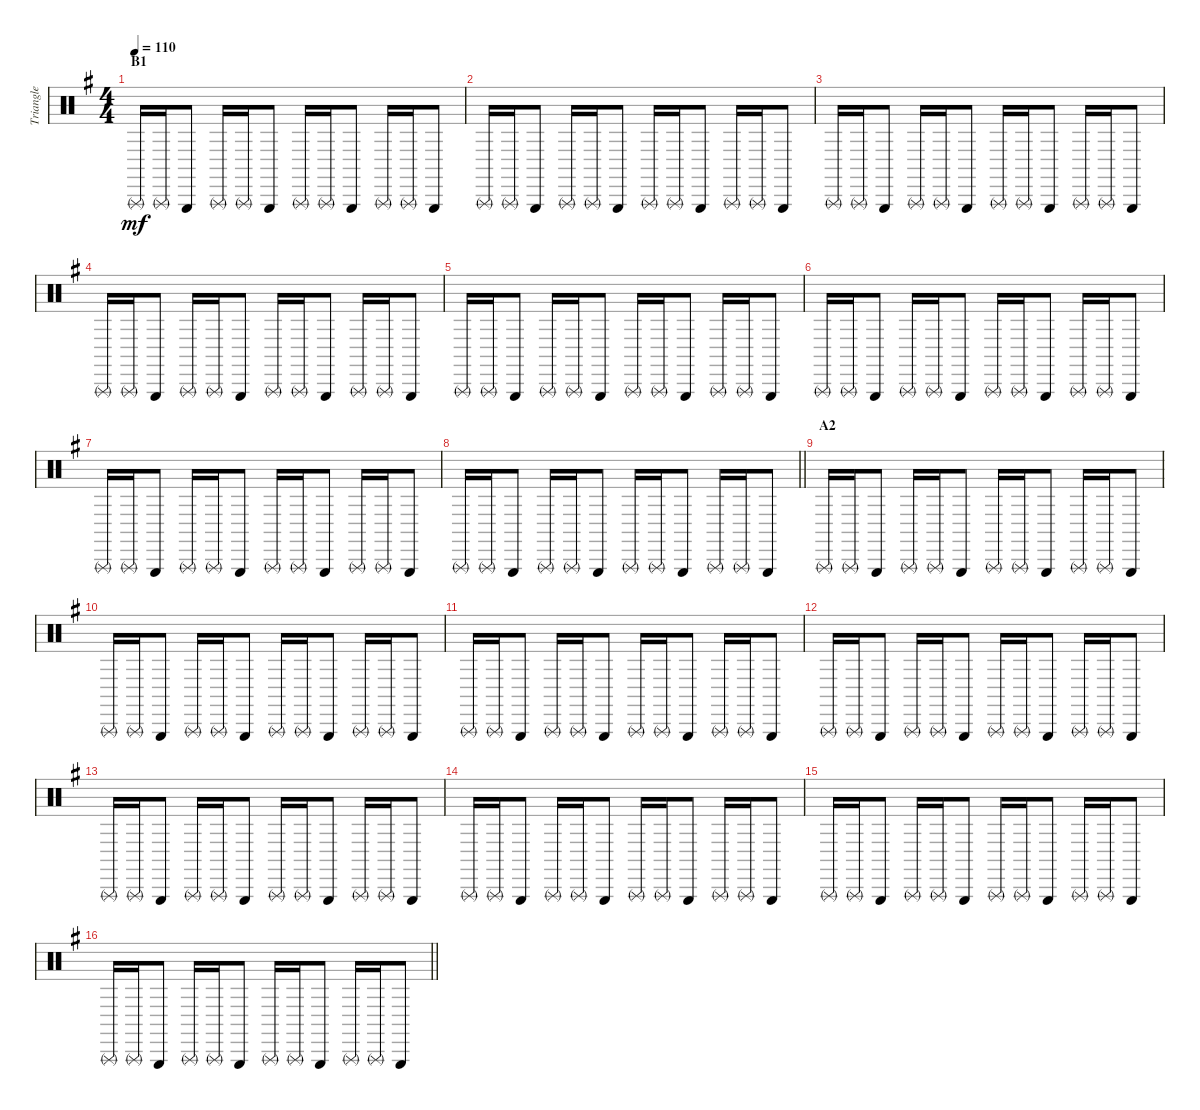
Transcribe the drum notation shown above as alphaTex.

\track ("Triangle" "Triangle") {instrument percussion}
\staff {score}
\articulation defaults
\ts (4 4)
\section ("" "B1")
\tempo 110
\clef neutral
\ks g "Triangle (rnute)".16{dy mf} "Triangle (rnute)".16 "Triangle (hit)".8 "Triangle (rnute)".16 "Triangle (rnute)".16 "Triangle (hit)".8 "Triangle (rnute)".16 "Triangle (rnute)".16 "Triangle (hit)".8 "Triangle (rnute)".16 "Triangle (rnute)".16 "Triangle (hit)".8
|
"Triangle (rnute)".16 "Triangle (rnute)".16 "Triangle (hit)".8 "Triangle (rnute)".16 "Triangle (rnute)".16 "Triangle (hit)".8 "Triangle (rnute)".16 "Triangle (rnute)".16 "Triangle (hit)".8 "Triangle (rnute)".16 "Triangle (rnute)".16 "Triangle (hit)".8 |
"Triangle (rnute)".16 "Triangle (rnute)".16 "Triangle (hit)".8 "Triangle (rnute)".16 "Triangle (rnute)".16 "Triangle (hit)".8 "Triangle (rnute)".16 "Triangle (rnute)".16 "Triangle (hit)".8 "Triangle (rnute)".16 "Triangle (rnute)".16 "Triangle (hit)".8 |
"Triangle (rnute)".16 "Triangle (rnute)".16 "Triangle (hit)".8 "Triangle (rnute)".16 "Triangle (rnute)".16 "Triangle (hit)".8 "Triangle (rnute)".16 "Triangle (rnute)".16 "Triangle (hit)".8 "Triangle (rnute)".16 "Triangle (rnute)".16 "Triangle (hit)".8 |
"Triangle (rnute)".16 "Triangle (rnute)".16 "Triangle (hit)".8 "Triangle (rnute)".16 "Triangle (rnute)".16 "Triangle (hit)".8 "Triangle (rnute)".16 "Triangle (rnute)".16 "Triangle (hit)".8 "Triangle (rnute)".16 "Triangle (rnute)".16 "Triangle (hit)".8 |
"Triangle (rnute)".16 "Triangle (rnute)".16 "Triangle (hit)".8 "Triangle (rnute)".16 "Triangle (rnute)".16 "Triangle (hit)".8 "Triangle (rnute)".16 "Triangle (rnute)".16 "Triangle (hit)".8 "Triangle (rnute)".16 "Triangle (rnute)".16 "Triangle (hit)".8 |
"Triangle (rnute)".16 "Triangle (rnute)".16 "Triangle (hit)".8 "Triangle (rnute)".16 "Triangle (rnute)".16 "Triangle (hit)".8 "Triangle (rnute)".16 "Triangle (rnute)".16 "Triangle (hit)".8 "Triangle (rnute)".16 "Triangle (rnute)".16 "Triangle (hit)".8 |
\barLineRight lightlight "Triangle (rnute)".16 "Triangle (rnute)".16 "Triangle (hit)".8 "Triangle (rnute)".16 "Triangle (rnute)".16 "Triangle (hit)".8 "Triangle (rnute)".16 "Triangle (rnute)".16 "Triangle (hit)".8 "Triangle (rnute)".16 "Triangle (rnute)".16 "Triangle (hit)".8
|
\section ("" "A2")
"Triangle (rnute)".16 "Triangle (rnute)".16 "Triangle (hit)".8 "Triangle (rnute)".16 "Triangle (rnute)".16 "Triangle (hit)".8 "Triangle (rnute)".16 "Triangle (rnute)".16 "Triangle (hit)".8 "Triangle (rnute)".16 "Triangle (rnute)".16 "Triangle (hit)".8 |
"Triangle (rnute)".16 "Triangle (rnute)".16 "Triangle (hit)".8 "Triangle (rnute)".16 "Triangle (rnute)".16 "Triangle (hit)".8 "Triangle (rnute)".16 "Triangle (rnute)".16 "Triangle (hit)".8 "Triangle (rnute)".16 "Triangle (rnute)".16 "Triangle (hit)".8 |
"Triangle (rnute)".16 "Triangle (rnute)".16 "Triangle (hit)".8 "Triangle (rnute)".16 "Triangle (rnute)".16 "Triangle (hit)".8 "Triangle (rnute)".16 "Triangle (rnute)".16 "Triangle (hit)".8 "Triangle (rnute)".16 "Triangle (rnute)".16 "Triangle (hit)".8 |
"Triangle (rnute)".16 "Triangle (rnute)".16 "Triangle (hit)".8 "Triangle (rnute)".16 "Triangle (rnute)".16 "Triangle (hit)".8 "Triangle (rnute)".16 "Triangle (rnute)".16 "Triangle (hit)".8 "Triangle (rnute)".16 "Triangle (rnute)".16 "Triangle (hit)".8 |
"Triangle (rnute)".16 "Triangle (rnute)".16 "Triangle (hit)".8 "Triangle (rnute)".16 "Triangle (rnute)".16 "Triangle (hit)".8 "Triangle (rnute)".16 "Triangle (rnute)".16 "Triangle (hit)".8 "Triangle (rnute)".16 "Triangle (rnute)".16 "Triangle (hit)".8 |
"Triangle (rnute)".16 "Triangle (rnute)".16 "Triangle (hit)".8 "Triangle (rnute)".16 "Triangle (rnute)".16 "Triangle (hit)".8 "Triangle (rnute)".16 "Triangle (rnute)".16 "Triangle (hit)".8 "Triangle (rnute)".16 "Triangle (rnute)".16 "Triangle (hit)".8 |
"Triangle (rnute)".16 "Triangle (rnute)".16 "Triangle (hit)".8 "Triangle (rnute)".16 "Triangle (rnute)".16 "Triangle (hit)".8 "Triangle (rnute)".16 "Triangle (rnute)".16 "Triangle (hit)".8 "Triangle (rnute)".16 "Triangle (rnute)".16 "Triangle (hit)".8 |
\barLineRight lightlight "Triangle (rnute)".16 "Triangle (rnute)".16 "Triangle (hit)".8 "Triangle (rnute)".16 "Triangle (rnute)".16 "Triangle (hit)".8 "Triangle (rnute)".16 "Triangle (rnute)".16 "Triangle (hit)".8 "Triangle (rnute)".16 "Triangle (rnute)".16 "Triangle (hit)".8
